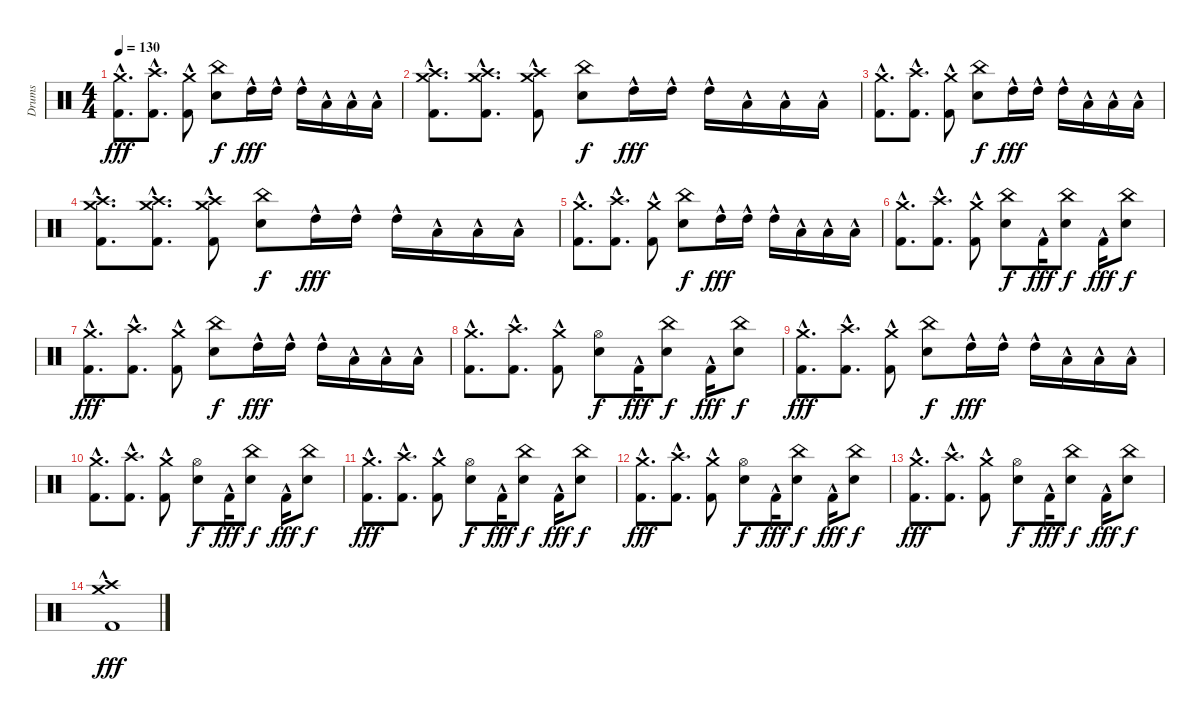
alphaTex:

\track ("Drums" "Drums") {instrument percussion}
\staff {score}
\articulation defaults
\ts (4 4)
\tempo 130
\clef neutral
\ks c
("Crash medium (hit)" "Kick (hit) 2"{hac}).8{d dy fff} ("Crash high (hit)" "Kick (hit) 2"{hac}).8{d} ("Crash medium (hit)" "Kick (hit) 2"{hac}).8 ("China (hit)" "Electric Snare (hit)").8{dy f} "High Tom (hit)"{hac}.16{dy fff} "High Tom (hit)"{hac}.16 "High Tom (hit)"{hac}.16 "Low Tom (hit)"{hac}.16 "Low Tom (hit)"{hac}.16 "Low Tom (hit)"{hac}.16 |
("Crash medium (hit)" "Crash high (hit)" "Kick (hit) 2"{hac}).8{d} ("Crash medium (hit)" "Crash high (hit)" "Kick (hit) 2"{hac}).8{d} ("Crash medium (hit)" "Crash high (hit)" "Kick (hit) 2"{hac}).8 ("China (hit)" "Electric Snare (hit)").8{dy f} "High Tom (hit)"{hac}.16{dy fff} "High Tom (hit)"{hac}.16 "High Tom (hit)"{hac}.16 "Low Tom (hit)"{hac}.16 "Low Tom (hit)"{hac}.16 "Low Tom (hit)"{hac}.16 |
("Crash medium (hit)" "Kick (hit) 2"{hac}).8{d} ("Crash high (hit)" "Kick (hit) 2"{hac}).8{d} ("Crash medium (hit)" "Kick (hit) 2"{hac}).8 ("China (hit)" "Electric Snare (hit)").8{dy f} "High Tom (hit)"{hac}.16{dy fff} "High Tom (hit)"{hac}.16 "High Tom (hit)"{hac}.16 "Low Tom (hit)"{hac}.16 "Low Tom (hit)"{hac}.16 "Low Tom (hit)"{hac}.16 |
("Crash medium (hit)" "Crash high (hit)" "Kick (hit) 2"{hac}).8{d} ("Crash medium (hit)" "Crash high (hit)" "Kick (hit) 2"{hac}).8{d} ("Crash medium (hit)" "Crash high (hit)" "Kick (hit) 2"{hac}).8 ("China (hit)" "Electric Snare (hit)").8{dy f} "High Tom (hit)"{hac}.16{dy fff} "High Tom (hit)"{hac}.16 "High Tom (hit)"{hac}.16 "Low Tom (hit)"{hac}.16 "Low Tom (hit)"{hac}.16 "Low Tom (hit)"{hac}.16 |
("Crash medium (hit)" "Kick (hit) 2"{hac}).8{d} ("Crash high (hit)" "Kick (hit) 2"{hac}).8{d} ("Crash medium (hit)" "Kick (hit) 2"{hac}).8 ("China (hit)" "Electric Snare (hit)").8{dy f} "High Tom (hit)"{hac}.16{dy fff} "High Tom (hit)"{hac}.16 "High Tom (hit)"{hac}.16 "Low Tom (hit)"{hac}.16 "Low Tom (hit)"{hac}.16 "Low Tom (hit)"{hac}.16 |
("Crash medium (hit)" "Kick (hit) 2"{hac}).8{d} ("Crash high (hit)" "Kick (hit) 2"{hac}).8{d} ("Crash medium (hit)" "Kick (hit) 2"{hac}).8 ("China (hit)" "Electric Snare (hit)").8{dy f} "Kick (hit) 2"{hac}.16{dy fff} ("China (hit)" "Electric Snare (hit)").8{dy f} "Kick (hit) 2"{hac}.16{dy fff} ("China (hit)" "Electric Snare (hit)").8{dy f} |
("Crash medium (hit)" "Kick (hit) 2"{hac}).8{d dy fff} ("Crash high (hit)" "Kick (hit) 2"{hac}).8{d} ("Crash medium (hit)" "Kick (hit) 2"{hac}).8 ("China (hit)" "Electric Snare (hit)").8{dy f} "High Tom (hit)"{hac}.16{dy fff} "High Tom (hit)"{hac}.16 "High Tom (hit)"{hac}.16 "Low Tom (hit)"{hac}.16 "Low Tom (hit)"{hac}.16 "Low Tom (hit)"{hac}.16 |
("Crash medium (hit)" "Kick (hit) 2"{hac}).8{d} ("Crash high (hit)" "Kick (hit) 2"{hac}).8{d} ("Crash medium (hit)" "Kick (hit) 2"{hac}).8 ("Hi-Hat (open)" "Electric Snare (hit)").8{dy f} "Kick (hit) 2"{hac}.16{dy fff} ("China (hit)" "Electric Snare (hit)").8{dy f} "Kick (hit) 2"{hac}.16{dy fff} ("China (hit)" "Electric Snare (hit)").8{dy f} |
("Crash medium (hit)" "Kick (hit) 2"{hac}).8{d dy fff} ("Crash high (hit)" "Kick (hit) 2"{hac}).8{d} ("Crash medium (hit)" "Kick (hit) 2"{hac}).8 ("China (hit)" "Electric Snare (hit)").8{dy f} "High Tom (hit)"{hac}.16{dy fff} "High Tom (hit)"{hac}.16 "High Tom (hit)"{hac}.16 "Low Tom (hit)"{hac}.16 "Low Tom (hit)"{hac}.16 "Low Tom (hit)"{hac}.16 |
("Crash medium (hit)" "Kick (hit) 2"{hac}).8{d} ("Crash high (hit)" "Kick (hit) 2"{hac}).8{d} ("Crash medium (hit)" "Kick (hit) 2"{hac}).8 ("Hi-Hat (open)" "Electric Snare (hit)").8{dy f} "Kick (hit) 2"{hac}.16{dy fff} ("China (hit)" "Electric Snare (hit)").8{dy f} "Kick (hit) 2"{hac}.16{dy fff} ("China (hit)" "Electric Snare (hit)").8{dy f} |
("Crash medium (hit)" "Kick (hit) 2"{hac}).8{d dy fff} ("Crash high (hit)" "Kick (hit) 2"{hac}).8{d} ("Crash medium (hit)" "Kick (hit) 2"{hac}).8 ("Hi-Hat (open)" "Electric Snare (hit)").8{dy f} "Kick (hit) 2"{hac}.16{dy fff} ("China (hit)" "Electric Snare (hit)").8{dy f} "Kick (hit) 2"{hac}.16{dy fff} ("China (hit)" "Electric Snare (hit)").8{dy f} |
("Crash medium (hit)" "Kick (hit) 2"{hac}).8{d dy fff} ("Crash high (hit)" "Kick (hit) 2"{hac}).8{d} ("Crash medium (hit)" "Kick (hit) 2"{hac}).8 ("Hi-Hat (open)" "Electric Snare (hit)").8{dy f} "Kick (hit) 2"{hac}.16{dy fff} ("China (hit)" "Electric Snare (hit)").8{dy f} "Kick (hit) 2"{hac}.16{dy fff} ("China (hit)" "Electric Snare (hit)").8{dy f} |
("Crash medium (hit)" "Kick (hit) 2"{hac}).8{d dy fff} ("Crash high (hit)" "Kick (hit) 2"{hac}).8{d} ("Crash medium (hit)" "Kick (hit) 2"{hac}).8 ("Hi-Hat (open)" "Electric Snare (hit)").8{dy f} "Kick (hit) 2"{hac}.16{dy fff} ("China (hit)" "Electric Snare (hit)").8{dy f} "Kick (hit) 2"{hac}.16{dy fff} ("China (hit)" "Electric Snare (hit)").8{dy f} |
("Crash medium (hit)" "Crash high (hit)" "Kick (hit) 2"{hac}).1{dy fff}
